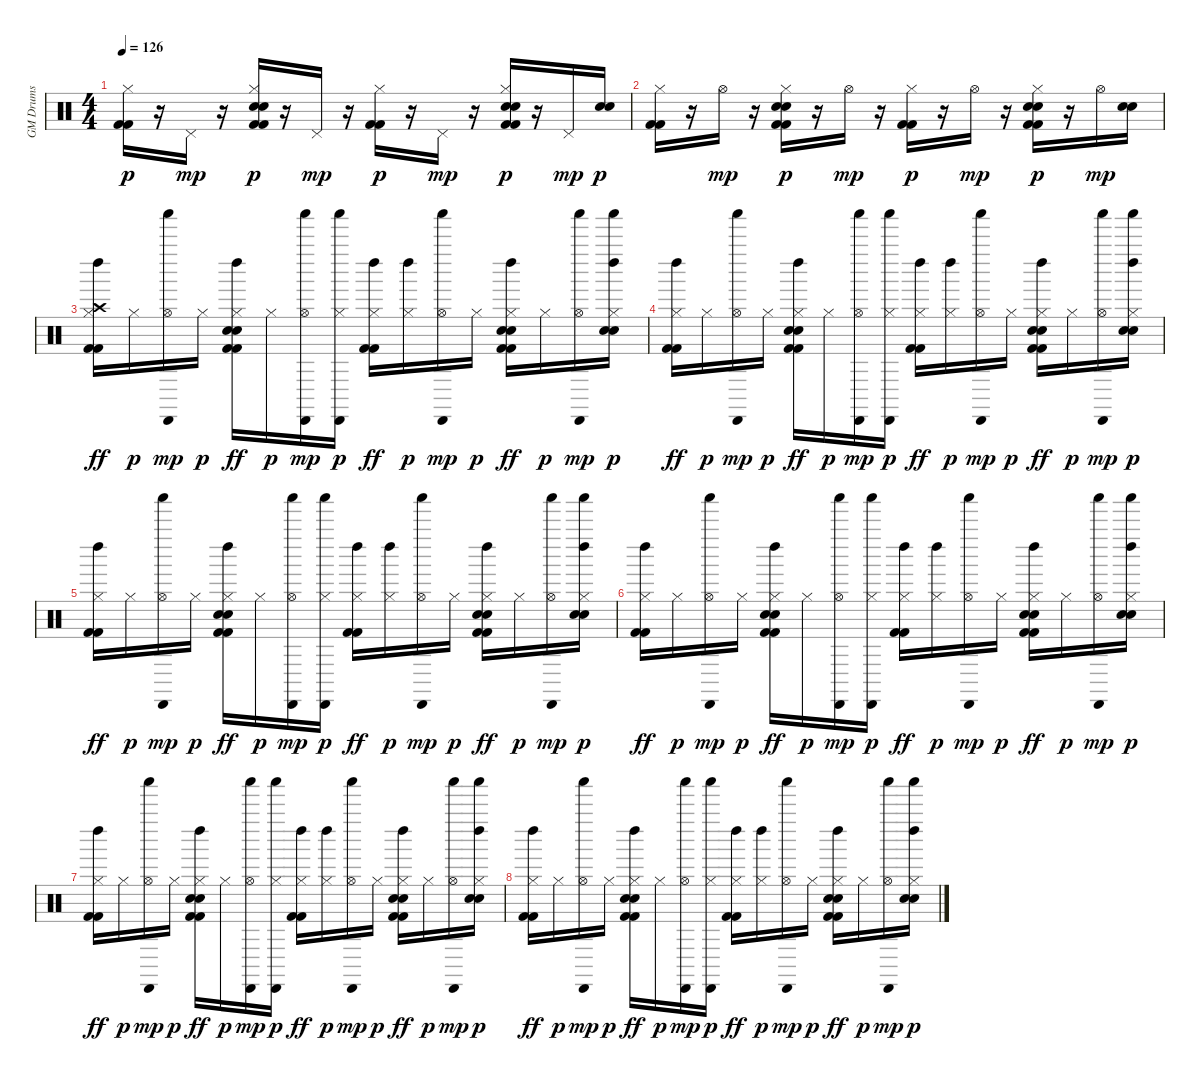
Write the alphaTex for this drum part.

\track ("GM Drums" "GM Drums") {instrument percussion}
\staff {score}
\articulation defaults
\ts (4 4)
\tempo 126
\clef neutral
\ks c
("Kick (hit) 2" "Kick (hit) 2" "Hi-Hat (closed)").16{dy p} r.16 "Pedal Hi-Hat (hit)".16{dy mp} r.16 ("Kick (hit) 2" "Kick (hit) 2" "Hand Clap (hit)" "Electric Snare (hit)" "Hi-Hat (closed)").16{dy p} r.16 "Pedal Hi-Hat (hit)".16{dy mp} r.16 ("Kick (hit) 2" "Kick (hit) 2" "Hi-Hat (closed)").16{dy p} r.16 "Pedal Hi-Hat (hit)".16{dy mp} r.16 ("Kick (hit) 2" "Kick (hit) 2" "Hand Clap (hit)" "Electric Snare (hit)" "Hi-Hat (closed)").16{dy p} r.16 "Pedal Hi-Hat (hit)".16{dy mp} ("Hand Clap (hit)" "Electric Snare (hit)").16{dy p} |
("Kick (hit) 2" "Kick (hit) 2" "Hi-Hat (closed)").16 r.16 "Hi-Hat (open)".16{dy mp} r.16 ("Kick (hit) 2" "Kick (hit) 2" "Hand Clap (hit)" "Electric Snare (hit)" "Hi-Hat (closed)").16{dy p} r.16 "Hi-Hat (open)".16{dy mp} r.16 ("Kick (hit) 2" "Kick (hit) 2" "Hi-Hat (closed)").16{dy p} r.16 "Hi-Hat (open)".16{dy mp} r.16 ("Kick (hit) 2" "Kick (hit) 2" "Hand Clap (hit)" "Electric Snare (hit)" "Hi-Hat (closed)").16{dy p} r.16 "Hi-Hat (open)".16{dy mp} ("Hand Clap (hit)" "Electric Snare (hit)").16 |
("Kick (hit) 2" "Kick (hit) 2" "Hi-Hat (closed)" "Crash high (hit)" "Left Maraca (hit)").16{dy ff} "Hi-Hat (closed)".16{dy p} ("Hi-Hat (open)" "Cabasa (hit)" "Shaker (hit)").16{dy mp} "Hi-Hat (closed)".16{dy p} ("Kick (hit) 2" "Kick (hit) 2" "Hand Clap (hit)" "Electric Snare (hit)" "Hi-Hat (closed)" "Left Maraca (hit)").16{dy ff} "Hi-Hat (closed)".16{dy p} ("Hi-Hat (open)" "Cabasa (hit)" "Shaker (hit)").16{dy mp} ("Hi-Hat (closed)" "Cabasa (hit)" "Shaker (hit)").16{dy p} ("Kick (hit) 2" "Kick (hit) 2" "Hi-Hat (closed)" "Left Maraca (hit)").16{dy ff} ("Hi-Hat (closed)" "Left Maraca (hit)").16{dy p} ("Hi-Hat (open)" "Cabasa (hit)" "Shaker (hit)").16{dy mp} "Hi-Hat (closed)".16{dy p} ("Kick (hit) 2" "Kick (hit) 2" "Hand Clap (hit)" "Electric Snare (hit)" "Hi-Hat (closed)" "Left Maraca (hit)").16{dy ff} "Hi-Hat (closed)".16{dy p} ("Hi-Hat (open)" "Cabasa (hit)" "Shaker (hit)").16{dy mp} ("Hand Clap (hit)" "Electric Snare (hit)" "Hi-Hat (closed)" "Left Maraca (hit)" "Shaker (hit)").16{dy p} |
("Kick (hit) 2" "Kick (hit) 2" "Hi-Hat (closed)" "Left Maraca (hit)").16{dy ff} "Hi-Hat (closed)".16{dy p} ("Hi-Hat (open)" "Cabasa (hit)" "Shaker (hit)").16{dy mp} "Hi-Hat (closed)".16{dy p} ("Kick (hit) 2" "Kick (hit) 2" "Hand Clap (hit)" "Electric Snare (hit)" "Hi-Hat (closed)" "Left Maraca (hit)").16{dy ff} "Hi-Hat (closed)".16{dy p} ("Hi-Hat (open)" "Cabasa (hit)" "Shaker (hit)").16{dy mp} ("Hi-Hat (closed)" "Cabasa (hit)" "Shaker (hit)").16{dy p} ("Kick (hit) 2" "Kick (hit) 2" "Hi-Hat (closed)" "Left Maraca (hit)").16{dy ff} ("Hi-Hat (closed)" "Left Maraca (hit)").16{dy p} ("Hi-Hat (open)" "Cabasa (hit)" "Shaker (hit)").16{dy mp} "Hi-Hat (closed)".16{dy p} ("Kick (hit) 2" "Kick (hit) 2" "Hand Clap (hit)" "Electric Snare (hit)" "Hi-Hat (closed)" "Left Maraca (hit)").16{dy ff} "Hi-Hat (closed)".16{dy p} ("Hi-Hat (open)" "Cabasa (hit)" "Shaker (hit)").16{dy mp} ("Hand Clap (hit)" "Electric Snare (hit)" "Hi-Hat (closed)" "Left Maraca (hit)" "Shaker (hit)").16{dy p} |
("Kick (hit) 2" "Kick (hit) 2" "Hi-Hat (closed)" "Left Maraca (hit)").16{dy ff} "Hi-Hat (closed)".16{dy p} ("Hi-Hat (open)" "Cabasa (hit)" "Shaker (hit)").16{dy mp} "Hi-Hat (closed)".16{dy p} ("Kick (hit) 2" "Kick (hit) 2" "Hand Clap (hit)" "Electric Snare (hit)" "Hi-Hat (closed)" "Left Maraca (hit)").16{dy ff} "Hi-Hat (closed)".16{dy p} ("Hi-Hat (open)" "Cabasa (hit)" "Shaker (hit)").16{dy mp} ("Hi-Hat (closed)" "Cabasa (hit)" "Shaker (hit)").16{dy p} ("Kick (hit) 2" "Kick (hit) 2" "Hi-Hat (closed)" "Left Maraca (hit)").16{dy ff} ("Hi-Hat (closed)" "Left Maraca (hit)").16{dy p} ("Hi-Hat (open)" "Cabasa (hit)" "Shaker (hit)").16{dy mp} "Hi-Hat (closed)".16{dy p} ("Kick (hit) 2" "Kick (hit) 2" "Hand Clap (hit)" "Electric Snare (hit)" "Hi-Hat (closed)" "Left Maraca (hit)").16{dy ff} "Hi-Hat (closed)".16{dy p} ("Hi-Hat (open)" "Cabasa (hit)" "Shaker (hit)").16{dy mp} ("Hand Clap (hit)" "Electric Snare (hit)" "Hi-Hat (closed)" "Left Maraca (hit)" "Shaker (hit)").16{dy p} |
("Kick (hit) 2" "Kick (hit) 2" "Hi-Hat (closed)" "Left Maraca (hit)").16{dy ff} "Hi-Hat (closed)".16{dy p} ("Hi-Hat (open)" "Cabasa (hit)" "Shaker (hit)").16{dy mp} "Hi-Hat (closed)".16{dy p} ("Kick (hit) 2" "Kick (hit) 2" "Hand Clap (hit)" "Electric Snare (hit)" "Hi-Hat (closed)" "Left Maraca (hit)").16{dy ff} "Hi-Hat (closed)".16{dy p} ("Hi-Hat (open)" "Cabasa (hit)" "Shaker (hit)").16{dy mp} ("Hi-Hat (closed)" "Cabasa (hit)" "Shaker (hit)").16{dy p} ("Kick (hit) 2" "Kick (hit) 2" "Hi-Hat (closed)" "Left Maraca (hit)").16{dy ff} ("Hi-Hat (closed)" "Left Maraca (hit)").16{dy p} ("Hi-Hat (open)" "Cabasa (hit)" "Shaker (hit)").16{dy mp} "Hi-Hat (closed)".16{dy p} ("Kick (hit) 2" "Kick (hit) 2" "Hand Clap (hit)" "Electric Snare (hit)" "Hi-Hat (closed)" "Left Maraca (hit)").16{dy ff} "Hi-Hat (closed)".16{dy p} ("Hi-Hat (open)" "Cabasa (hit)" "Shaker (hit)").16{dy mp} ("Hand Clap (hit)" "Electric Snare (hit)" "Hi-Hat (closed)" "Left Maraca (hit)" "Shaker (hit)").16{dy p} |
("Kick (hit) 2" "Kick (hit) 2" "Hi-Hat (closed)" "Left Maraca (hit)").16{dy ff} "Hi-Hat (closed)".16{dy p} ("Hi-Hat (open)" "Cabasa (hit)" "Shaker (hit)").16{dy mp} "Hi-Hat (closed)".16{dy p} ("Kick (hit) 2" "Kick (hit) 2" "Hand Clap (hit)" "Electric Snare (hit)" "Hi-Hat (closed)" "Left Maraca (hit)").16{dy ff} "Hi-Hat (closed)".16{dy p} ("Hi-Hat (open)" "Cabasa (hit)" "Shaker (hit)").16{dy mp} ("Hi-Hat (closed)" "Cabasa (hit)" "Shaker (hit)").16{dy p} ("Kick (hit) 2" "Kick (hit) 2" "Hi-Hat (closed)" "Left Maraca (hit)").16{dy ff} ("Hi-Hat (closed)" "Left Maraca (hit)").16{dy p} ("Hi-Hat (open)" "Cabasa (hit)" "Shaker (hit)").16{dy mp} "Hi-Hat (closed)".16{dy p} ("Kick (hit) 2" "Kick (hit) 2" "Hand Clap (hit)" "Electric Snare (hit)" "Hi-Hat (closed)" "Left Maraca (hit)").16{dy ff} "Hi-Hat (closed)".16{dy p} ("Hi-Hat (open)" "Cabasa (hit)" "Shaker (hit)").16{dy mp} ("Hand Clap (hit)" "Electric Snare (hit)" "Hi-Hat (closed)" "Left Maraca (hit)" "Shaker (hit)").16{dy p} |
("Kick (hit) 2" "Kick (hit) 2" "Hi-Hat (closed)" "Left Maraca (hit)").16{dy ff} "Hi-Hat (closed)".16{dy p} ("Hi-Hat (open)" "Cabasa (hit)" "Shaker (hit)").16{dy mp} "Hi-Hat (closed)".16{dy p} ("Kick (hit) 2" "Kick (hit) 2" "Hand Clap (hit)" "Electric Snare (hit)" "Hi-Hat (closed)" "Left Maraca (hit)").16{dy ff} "Hi-Hat (closed)".16{dy p} ("Hi-Hat (open)" "Cabasa (hit)" "Shaker (hit)").16{dy mp} ("Hi-Hat (closed)" "Cabasa (hit)" "Shaker (hit)").16{dy p} ("Kick (hit) 2" "Kick (hit) 2" "Hi-Hat (closed)" "Left Maraca (hit)").16{dy ff} ("Hi-Hat (closed)" "Left Maraca (hit)").16{dy p} ("Hi-Hat (open)" "Cabasa (hit)" "Shaker (hit)").16{dy mp} "Hi-Hat (closed)".16{dy p} ("Kick (hit) 2" "Kick (hit) 2" "Hand Clap (hit)" "Electric Snare (hit)" "Hi-Hat (closed)" "Left Maraca (hit)").16{dy ff} "Hi-Hat (closed)".16{dy p} ("Hi-Hat (open)" "Cabasa (hit)" "Shaker (hit)").16{dy mp} ("Hand Clap (hit)" "Electric Snare (hit)" "Hi-Hat (closed)" "Left Maraca (hit)" "Shaker (hit)").16{dy p}
